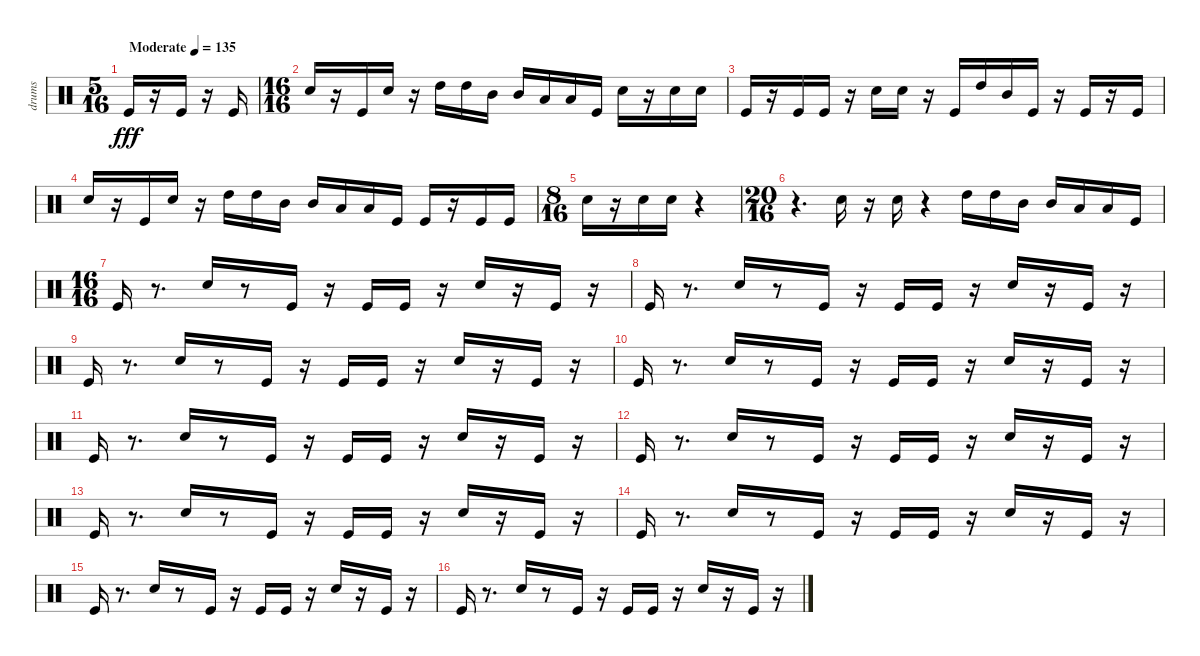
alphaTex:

\track ("drums" "drums") {instrument percussion}
\staff {score}
\articulation defaults
\ts (5 16)
\tempo (135 "Moderate")
\clef neutral
\ks c "Kick (hit)".16{dy fff}
r.16 "Kick (hit)".16 r.16 "Kick (hit)".16 |
\ts (16 16)
"Snare (hit) 2".16 r.16 "Kick (hit)".16 "Snare (hit) 2".16 r.16 "High Tom (hit)".16 "High Tom (hit)".16 "Mid Tom (hit)".16 "Mid Tom (hit)".16 "Low Tom (hit)".16 "Low Tom (hit)".16 "Kick (hit)".16 "Snare (hit) 2".16 r.16 "Snare (hit) 2".16 "Snare (hit) 2".16 |
"Kick (hit)".16 r.16 "Kick (hit)".16 "Kick (hit)".16 r.16 "Snare (hit) 2".16 "Snare (hit) 2".16 r.16 "Kick (hit)".16 "High Tom (hit)".16 "Mid Tom (hit)".16 "Kick (hit)".16 r.16 "Kick (hit)".16 r.16 "Kick (hit)".16 |
"Snare (hit) 2".16 r.16 "Kick (hit)".16 "Snare (hit) 2".16 r.16 "High Tom (hit)".16 "High Tom (hit)".16 "Mid Tom (hit)".16 "Mid Tom (hit)".16 "Low Tom (hit)".16 "Low Tom (hit)".16 "Kick (hit)".16 "Kick (hit)".16 r.16 "Kick (hit)".16 "Kick (hit)".16 |
\ts (8 16)
"Snare (hit) 2".16 r.16 "Snare (hit) 2".16 "Snare (hit) 2".16 r.4 |
\ts (20 16)
r.4{d} "Snare (hit) 2".16 r.16 "Snare (hit) 2".16 r.4 "High Tom (hit)".16 "High Tom (hit)".16 "Mid Tom (hit)".16 "Mid Tom (hit)".16 "Low Tom (hit)".16 "Low Tom (hit)".16 "Kick (hit)".16 |
\ts (16 16)
"Kick (hit)".16 r.8{d} "Snare (hit) 2".16 r.8 "Kick (hit)".16 r.16 "Kick (hit)".16 "Kick (hit)".16 r.16 "Snare (hit) 2".16 r.16 "Kick (hit)".16 r.16 |
"Kick (hit)".16 r.8{d} "Snare (hit) 2".16 r.8 "Kick (hit)".16 r.16 "Kick (hit)".16 "Kick (hit)".16 r.16 "Snare (hit) 2".16 r.16 "Kick (hit)".16 r.16 |
"Kick (hit)".16 r.8{d} "Snare (hit) 2".16 r.8 "Kick (hit)".16 r.16 "Kick (hit)".16 "Kick (hit)".16 r.16 "Snare (hit) 2".16 r.16 "Kick (hit)".16 r.16 |
"Kick (hit)".16 r.8{d} "Snare (hit) 2".16 r.8 "Kick (hit)".16 r.16 "Kick (hit)".16 "Kick (hit)".16 r.16 "Snare (hit) 2".16 r.16 "Kick (hit)".16 r.16 |
"Kick (hit)".16 r.8{d} "Snare (hit) 2".16 r.8 "Kick (hit)".16 r.16 "Kick (hit)".16 "Kick (hit)".16 r.16 "Snare (hit) 2".16 r.16 "Kick (hit)".16 r.16 |
"Kick (hit)".16 r.8{d} "Snare (hit) 2".16 r.8 "Kick (hit)".16 r.16 "Kick (hit)".16 "Kick (hit)".16 r.16 "Snare (hit) 2".16 r.16 "Kick (hit)".16 r.16 |
"Kick (hit)".16 r.8{d} "Snare (hit) 2".16 r.8 "Kick (hit)".16 r.16 "Kick (hit)".16 "Kick (hit)".16 r.16 "Snare (hit) 2".16 r.16 "Kick (hit)".16 r.16 |
"Kick (hit)".16 r.8{d} "Snare (hit) 2".16 r.8 "Kick (hit)".16 r.16 "Kick (hit)".16 "Kick (hit)".16 r.16 "Snare (hit) 2".16 r.16 "Kick (hit)".16 r.16 |
"Kick (hit)".16 r.8{d} "Snare (hit) 2".16 r.8 "Kick (hit)".16 r.16 "Kick (hit)".16 "Kick (hit)".16 r.16 "Snare (hit) 2".16 r.16 "Kick (hit)".16 r.16 |
"Kick (hit)".16 r.8{d} "Snare (hit) 2".16 r.8 "Kick (hit)".16 r.16 "Kick (hit)".16 "Kick (hit)".16 r.16 "Snare (hit) 2".16 r.16 "Kick (hit)".16 r.16
